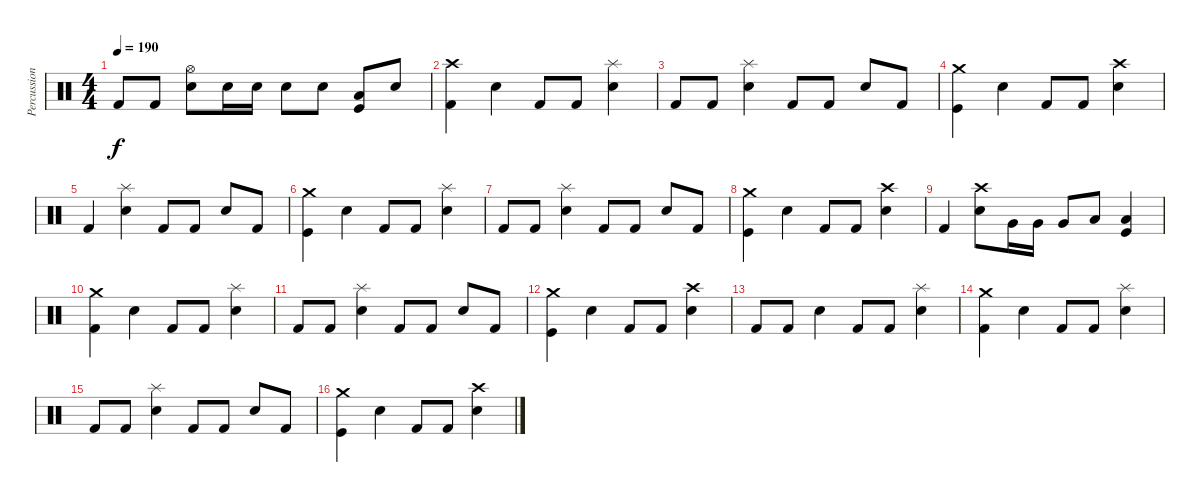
\track ("Percussions" "Percussion") {instrument percussion}
\staff {score}
\articulation defaults
\ts (4 4)
\tempo 190
\clef neutral
\ks c "Kick (hit) 2".8{dy f} "Kick (hit) 2".8
("Hi-Hat (open)" "Snare (hit) 2").8 "Electric Snare (hit)".16 "Electric Snare (hit)".16 "Electric Snare (hit)".8 "Electric Snare (hit)".8 ("Low Floor Tom (hit)" "Kick (hit)").8 "Electric Snare (hit)".8 |
("Crash high (hit)" "Kick (hit) 2").4 "Snare (hit) 2".4 "Kick (hit) 2".8 "Kick (hit) 2".8 ("Splash (hit)" "Snare (hit) 2").4 |
"Kick (hit) 2".8 "Kick (hit) 2".8 ("Splash (hit)" "Snare (hit) 2").4 "Kick (hit) 2".8 "Kick (hit) 2".8 "Snare (hit) 2".8 "Kick (hit) 2".8 |
("Crash medium (hit)" "Kick (hit)").4 "Snare (hit) 2".4 "Kick (hit) 2".8 "Kick (hit) 2".8 ("Crash high (hit)" "Snare (hit) 2").4 |
"Kick (hit) 2".4 ("Splash (hit)" "Snare (hit) 2").4 "Kick (hit) 2".8 "Kick (hit) 2".8 "Snare (hit) 2".8 "Kick (hit) 2".8 |
("Crash medium (hit)" "Kick (hit)").4 "Snare (hit) 2".4 "Kick (hit) 2".8 "Kick (hit) 2".8 ("Splash (hit)" "Snare (hit) 2").4 |
"Kick (hit) 2".8 "Kick (hit) 2".8 ("Splash (hit)" "Snare (hit) 2").4 "Kick (hit) 2".8 "Kick (hit) 2".8 "Snare (hit) 2".8 "Kick (hit) 2".8 |
("Crash medium (hit)" "Kick (hit)").4 "Snare (hit) 2".4 "Kick (hit) 2".8 "Kick (hit) 2".8 ("Crash high (hit)" "Snare (hit) 2").4 |
"Kick (hit) 2".4 ("Crash high (hit)" "Snare (hit) 2").8 "Very Low Tom (hit)".16 "Very Low Tom (hit)".16 "Very Low Tom (hit)".8 "Low Tom (hit)".8 ("Low Floor Tom (hit)" "Kick (hit)").4 |
("Crash medium (hit)" "Kick (hit) 2").4 "Snare (hit) 2".4 "Kick (hit) 2".8 "Kick (hit) 2".8 ("Splash (hit)" "Snare (hit) 2").4 |
"Kick (hit) 2".8 "Kick (hit) 2".8 ("Splash (hit)" "Snare (hit) 2").4 "Kick (hit) 2".8 "Kick (hit) 2".8 "Snare (hit) 2".8 "Kick (hit) 2".8 |
("Crash medium (hit)" "Kick (hit)").4 "Snare (hit) 2".4 "Kick (hit) 2".8 "Kick (hit) 2".8 ("Crash high (hit)" "Snare (hit) 2").4 |
"Kick (hit) 2".8 "Kick (hit) 2".8 "Snare (hit) 2".4 "Kick (hit) 2".8 "Kick (hit) 2".8 ("Splash (hit)" "Snare (hit) 2").4 |
("Crash medium (hit)" "Kick (hit) 2").4 "Snare (hit) 2".4 "Kick (hit) 2".8 "Kick (hit) 2".8 ("Splash (hit)" "Snare (hit) 2").4 |
"Kick (hit) 2".8 "Kick (hit) 2".8 ("Splash (hit)" "Snare (hit) 2").4 "Kick (hit) 2".8 "Kick (hit) 2".8 "Snare (hit) 2".8 "Kick (hit) 2".8 |
("Crash medium (hit)" "Kick (hit)").4 "Snare (hit) 2".4 "Kick (hit) 2".8 "Kick (hit) 2".8 ("Crash high (hit)" "Snare (hit) 2").4
